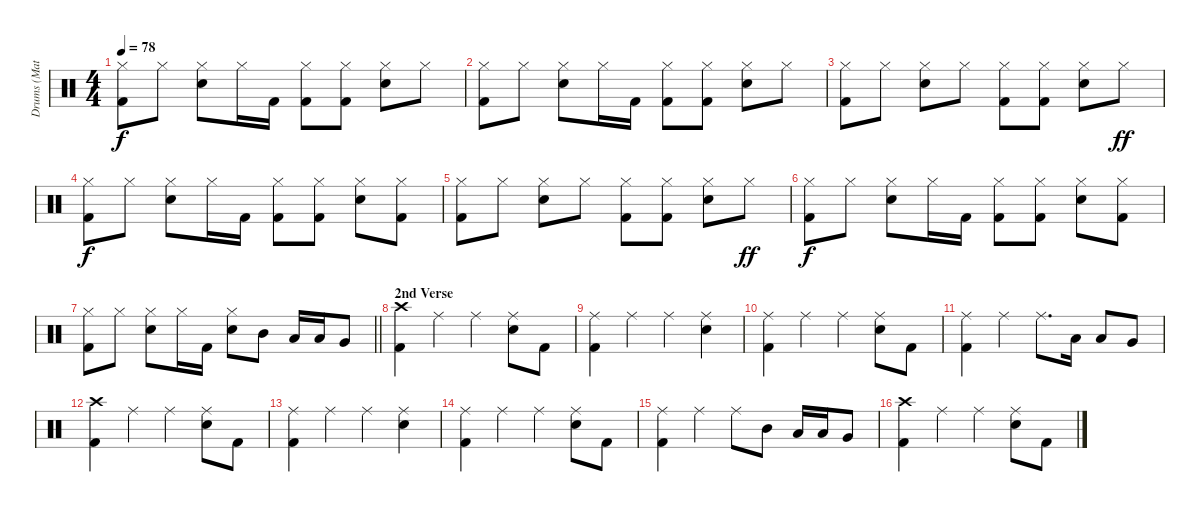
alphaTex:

\track ("Drums (Matt)" "Drums (Mat") {instrument percussion}
\staff {score}
\articulation defaults
\ts (4 4)
\tempo 78
\clef neutral
\ks c
("Hi-Hat (closed)" "Kick (hit) 2").8{dy f} "Hi-Hat (closed)".8 ("Hi-Hat (closed)" "Snare (hit) 2").8 "Hi-Hat (closed)".16 "Kick (hit) 2".16 ("Hi-Hat (closed)" "Kick (hit) 2").8 ("Hi-Hat (closed)" "Kick (hit) 2").8 ("Hi-Hat (closed)" "Snare (hit) 2").8 "Hi-Hat (closed)".8 |
("Hi-Hat (closed)" "Kick (hit) 2").8 "Hi-Hat (closed)".8 ("Hi-Hat (closed)" "Snare (hit) 2").8 "Hi-Hat (closed)".16 "Kick (hit) 2".16 ("Hi-Hat (closed)" "Kick (hit) 2").8 ("Hi-Hat (closed)" "Kick (hit) 2").8 ("Hi-Hat (closed)" "Snare (hit) 2").8 "Hi-Hat (closed)".8 |
("Hi-Hat (closed)" "Kick (hit) 2").8 "Hi-Hat (closed)".8 ("Hi-Hat (closed)" "Snare (hit) 2").8 "Hi-Hat (closed)".8 ("Hi-Hat (closed)" "Kick (hit) 2").8 ("Hi-Hat (closed)" "Kick (hit) 2").8 ("Hi-Hat (closed)" "Snare (hit) 2").8 "Hi-Hat (closed)".8{dy ff} |
("Hi-Hat (closed)" "Kick (hit) 2").8{dy f} "Hi-Hat (closed)".8 ("Hi-Hat (closed)" "Snare (hit) 2").8 "Hi-Hat (closed)".16 "Kick (hit) 2".16 ("Hi-Hat (closed)" "Kick (hit) 2").8 ("Hi-Hat (closed)" "Kick (hit) 2").8 ("Hi-Hat (closed)" "Snare (hit) 2").8 ("Hi-Hat (closed)" "Kick (hit) 2").8 |
("Hi-Hat (closed)" "Kick (hit) 2").8 "Hi-Hat (closed)".8 ("Hi-Hat (closed)" "Snare (hit) 2").8 "Hi-Hat (closed)".8 ("Hi-Hat (closed)" "Kick (hit) 2").8 ("Hi-Hat (closed)" "Kick (hit) 2").8 ("Hi-Hat (closed)" "Snare (hit) 2").8 "Hi-Hat (closed)".8{dy ff} |
("Hi-Hat (closed)" "Kick (hit) 2").8{dy f} "Hi-Hat (closed)".8 ("Hi-Hat (closed)" "Snare (hit) 2").8 "Hi-Hat (closed)".16 "Kick (hit) 2".16 ("Hi-Hat (closed)" "Kick (hit) 2").8 ("Hi-Hat (closed)" "Kick (hit) 2").8 ("Hi-Hat (closed)" "Snare (hit) 2").8 ("Hi-Hat (closed)" "Kick (hit) 2").8 |
\barLineRight lightlight
("Hi-Hat (closed)" "Kick (hit) 2").8 "Hi-Hat (closed)".8 ("Hi-Hat (closed)" "Snare (hit) 2").8 "Hi-Hat (closed)".16 "Kick (hit) 2".16 ("Hi-Hat (closed)" "Snare (hit) 2").8 "Mid Tom (hit)".8 "Low Tom (hit)".16 "Low Tom (hit)".16 "Very Low Tom (hit)".8 |
\section ("" "2nd Verse")
("Crash high (hit)" "Kick (hit) 2").4 "Ride (middle)".4 "Ride (middle)".4 ("Ride (middle)" "Snare (hit) 2").8 "Kick (hit) 2".8 |
("Ride (middle)" "Kick (hit) 2").4 "Ride (middle)".4 "Ride (middle)".4 ("Ride (middle)" "Snare (hit) 2").4 |
("Ride (middle)" "Kick (hit) 2").4 "Ride (middle)".4 "Ride (middle)".4 ("Ride (middle)" "Snare (hit) 2").8 "Kick (hit) 2".8 |
("Ride (middle)" "Kick (hit) 2").4 "Ride (middle)".4 "Ride (middle)".8{d} "Low Tom (hit)".16 "Low Tom (hit)".8 "Very Low Tom (hit)".8 |
("Crash high (hit)" "Kick (hit) 2").4 "Ride (middle)".4 "Ride (middle)".4 ("Ride (middle)" "Snare (hit) 2").8 "Kick (hit) 2".8 |
("Ride (middle)" "Kick (hit) 2").4 "Ride (middle)".4 "Ride (middle)".4 ("Ride (middle)" "Snare (hit) 2").4 |
("Ride (middle)" "Kick (hit) 2").4 "Ride (middle)".4 "Ride (middle)".4 ("Ride (middle)" "Snare (hit) 2").8 "Kick (hit) 2".8 |
("Ride (middle)" "Kick (hit) 2").4 "Ride (middle)".4 "Ride (middle)".8 "Mid Tom (hit)".8 "Low Tom (hit)".16 "Low Tom (hit)".16 "Very Low Tom (hit)".8 |
("Crash high (hit)" "Kick (hit) 2").4 "Ride (middle)".4 "Ride (middle)".4 ("Ride (middle)" "Snare (hit) 2").8 "Kick (hit) 2".8
